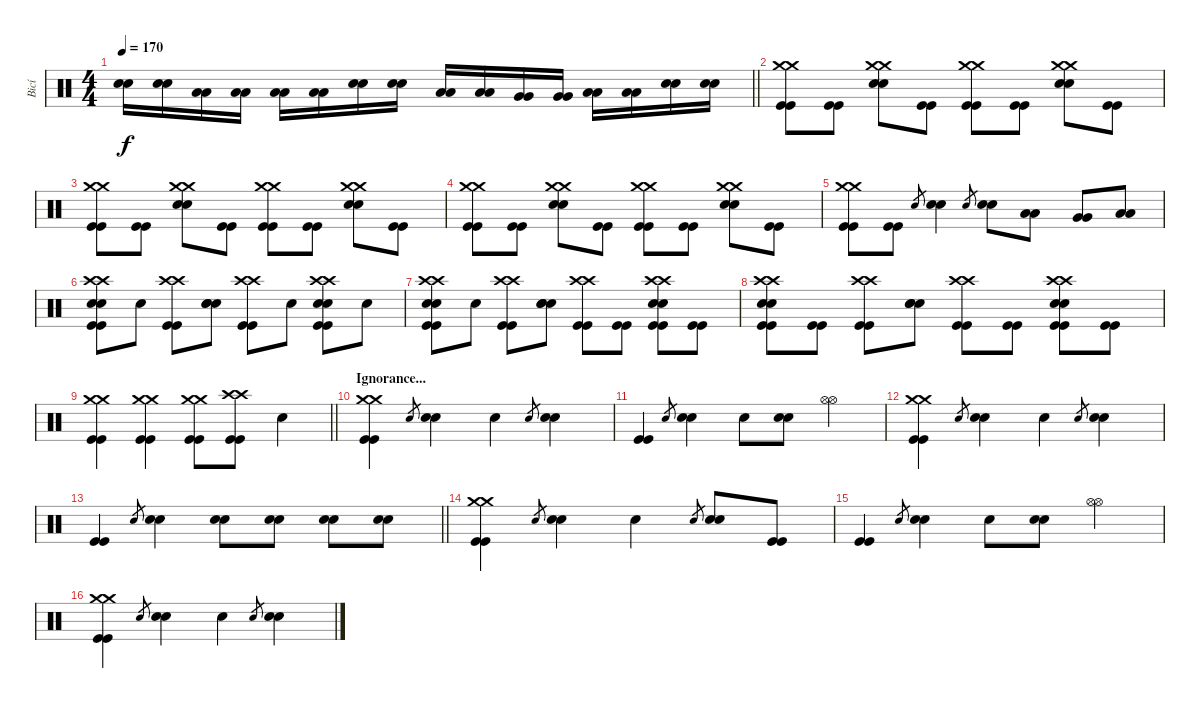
\track ("Bicí" "Bicí") {instrument percussion}
\staff {score}
\articulation defaults
\ts (4 4)
\tempo 170
\clef neutral
\barLineRight lightlight
\ks c
("Electric Snare (hit)" "Electric Snare (hit)").16{dy f} ("Electric Snare (hit)" "Electric Snare (hit)").16 ("Low Tom (hit)" "Low Tom (hit)").16 ("Low Tom (hit)" "Low Tom (hit)").16 ("Low Tom (hit)" "Low Tom (hit)").16 ("Low Tom (hit)" "Low Tom (hit)").16 ("Electric Snare (hit)" "Electric Snare (hit)").16 ("Electric Snare (hit)" "Electric Snare (hit)").16 ("Low Tom (hit)" "Low Tom (hit)").16 ("Low Tom (hit)" "Low Tom (hit)").16 ("Very Low Tom (hit)" "Very Low Tom (hit)").16 ("Very Low Tom (hit)" "Very Low Tom (hit)").16 ("Low Floor Tom (hit)" "Low Floor Tom (hit)").16 ("Low Floor Tom (hit)" "Low Floor Tom (hit)").16 ("Electric Snare (hit)" "Electric Snare (hit)").16 ("Electric Snare (hit)" "Electric Snare (hit)").16 |
("Crash medium (hit)" "Crash medium (hit)" "Kick (hit)" "Kick (hit)").8 ("Kick (hit)" "Kick (hit)").8 ("Crash medium (hit)" "Crash medium (hit)" "Electric Snare (hit)" "Electric Snare (hit)").8 ("Kick (hit)" "Kick (hit)").8 ("Crash medium (hit)" "Crash medium (hit)" "Kick (hit)" "Kick (hit)").8 ("Kick (hit)" "Kick (hit)").8 ("Crash medium (hit)" "Crash medium (hit)" "Electric Snare (hit)" "Electric Snare (hit)").8 ("Kick (hit)" "Kick (hit)").8 |
("Crash medium (hit)" "Crash medium (hit)" "Kick (hit)" "Kick (hit)").8 ("Kick (hit)" "Kick (hit)").8 ("Crash medium (hit)" "Crash medium (hit)" "Electric Snare (hit)" "Electric Snare (hit)").8 ("Kick (hit)" "Kick (hit)").8 ("Crash medium (hit)" "Crash medium (hit)" "Kick (hit)" "Kick (hit)").8 ("Kick (hit)" "Kick (hit)").8 ("Crash medium (hit)" "Crash medium (hit)" "Electric Snare (hit)" "Electric Snare (hit)").8 ("Kick (hit)" "Kick (hit)").8 |
("Crash medium (hit)" "Crash medium (hit)" "Kick (hit)" "Kick (hit)").8 ("Kick (hit)" "Kick (hit)").8 ("Crash medium (hit)" "Crash medium (hit)" "Electric Snare (hit)" "Electric Snare (hit)").8 ("Kick (hit)" "Kick (hit)").8 ("Crash medium (hit)" "Crash medium (hit)" "Kick (hit)" "Kick (hit)").8 ("Kick (hit)" "Kick (hit)").8 ("Crash medium (hit)" "Crash medium (hit)" "Electric Snare (hit)" "Electric Snare (hit)").8 ("Kick (hit)" "Kick (hit)").8 |
("Crash medium (hit)" "Crash medium (hit)" "Kick (hit)" "Kick (hit)").8 ("Kick (hit)" "Kick (hit)").8 "Electric Snare (hit)".8{gr} ("Electric Snare (hit)" "Electric Snare (hit)").4 "Electric Snare (hit)".8{gr} ("Electric Snare (hit)" "Electric Snare (hit)").8 ("Low Tom (hit)" "Low Tom (hit)").8 ("Very Low Tom (hit)" "Very Low Tom (hit)").8 ("Low Floor Tom (hit)" "Low Floor Tom (hit)").8 |
("Crash high (hit)" "Crash high (hit)" "Electric Snare (hit)" "Electric Snare (hit)" "Kick (hit)" "Kick (hit)").8 "Snare (hit)".8 ("Crash high (hit)" "Crash high (hit)" "Kick (hit)" "Kick (hit)").8 ("Electric Snare (hit)" "Electric Snare (hit)" "Snare (hit)").8 ("Crash high (hit)" "Crash high (hit)" "Kick (hit)" "Kick (hit)").8 "Snare (hit)".8 ("Crash high (hit)" "Crash high (hit)" "Electric Snare (hit)" "Electric Snare (hit)" "Kick (hit)" "Kick (hit)").8 "Snare (hit)".8 |
("Crash high (hit)" "Crash high (hit)" "Electric Snare (hit)" "Electric Snare (hit)" "Kick (hit)" "Kick (hit)").8 "Snare (hit)".8 ("Crash high (hit)" "Crash high (hit)" "Kick (hit)" "Kick (hit)").8 ("Electric Snare (hit)" "Electric Snare (hit)" "Snare (hit)").8 ("Crash high (hit)" "Crash high (hit)" "Kick (hit)" "Kick (hit)").8 ("Kick (hit)" "Kick (hit)").8 ("Crash high (hit)" "Crash high (hit)" "Electric Snare (hit)" "Electric Snare (hit)" "Kick (hit)" "Kick (hit)").8 ("Kick (hit)" "Kick (hit)").8 |
("Crash high (hit)" "Crash high (hit)" "Electric Snare (hit)" "Electric Snare (hit)" "Kick (hit)" "Kick (hit)").8 ("Kick (hit)" "Kick (hit)").8 ("Crash high (hit)" "Crash high (hit)" "Kick (hit)" "Kick (hit)").8 ("Electric Snare (hit)" "Electric Snare (hit)" "Snare (hit)").8 ("Crash high (hit)" "Crash high (hit)" "Kick (hit)" "Kick (hit)").8 ("Kick (hit)" "Kick (hit)").8 ("Crash high (hit)" "Crash high (hit)" "Electric Snare (hit)" "Electric Snare (hit)" "Kick (hit)" "Kick (hit)").8 ("Kick (hit)" "Kick (hit)").8 |
\barLineRight lightlight
("Crash medium (hit)" "Crash medium (hit)" "Kick (hit)" "Kick (hit)").4 ("Crash medium (hit)" "Crash medium (hit)" "Kick (hit)" "Kick (hit)").4 ("Crash medium (hit)" "Crash medium (hit)" "Kick (hit)" "Kick (hit)").8 ("Crash high (hit)" "Crash high (hit)" "Kick (hit)" "Kick (hit)").8 "Snare (hit)".4 |
\section ("" "Ignorance...")
("Crash medium (hit)" "Crash medium (hit)" "Kick (hit)" "Kick (hit)").4 "Electric Snare (hit)".8{gr} ("Electric Snare (hit)" "Electric Snare (hit)").4 "Snare (hit)".4 "Electric Snare (hit)".8{gr} ("Electric Snare (hit)" "Electric Snare (hit)").4 |
("Kick (hit)" "Kick (hit)").4 "Electric Snare (hit)".8{gr} ("Electric Snare (hit)" "Electric Snare (hit)").4 "Snare (hit)".8 ("Electric Snare (hit)" "Electric Snare (hit)").8 ("Hi-Hat (open)" "Hi-Hat (open)").4 |
("Crash medium (hit)" "Crash medium (hit)" "Kick (hit)" "Kick (hit)").4 "Electric Snare (hit)".8{gr} ("Electric Snare (hit)" "Electric Snare (hit)").4 "Snare (hit)".4 "Electric Snare (hit)".8{gr} ("Electric Snare (hit)" "Electric Snare (hit)").4 |
\barLineRight lightlight
("Kick (hit)" "Kick (hit)").4 "Electric Snare (hit)".8{gr} ("Electric Snare (hit)" "Electric Snare (hit)").4 ("Electric Snare (hit)" "Electric Snare (hit)").8 ("Electric Snare (hit)" "Electric Snare (hit)").8 ("Electric Snare (hit)" "Electric Snare (hit)").8 ("Electric Snare (hit)" "Electric Snare (hit)").8 |
\section ("" "")
("Crash medium (hit)" "Crash medium (hit)" "Kick (hit)" "Kick (hit)").4 "Electric Snare (hit)".8{gr} ("Electric Snare (hit)" "Electric Snare (hit)").4 "Snare (hit)".4 "Electric Snare (hit)".8{gr} ("Electric Snare (hit)" "Electric Snare (hit)").8 ("Kick (hit)" "Kick (hit)").8 |
("Kick (hit)" "Kick (hit)").4 "Electric Snare (hit)".8{gr} ("Electric Snare (hit)" "Electric Snare (hit)").4 "Snare (hit)".8 ("Electric Snare (hit)" "Electric Snare (hit)").8 ("Hi-Hat (open)" "Hi-Hat (open)").4 |
("Crash medium (hit)" "Crash medium (hit)" "Kick (hit)" "Kick (hit)").4 "Electric Snare (hit)".8{gr} ("Electric Snare (hit)" "Electric Snare (hit)").4 "Snare (hit)".4 "Electric Snare (hit)".8{gr} ("Electric Snare (hit)" "Electric Snare (hit)").4
